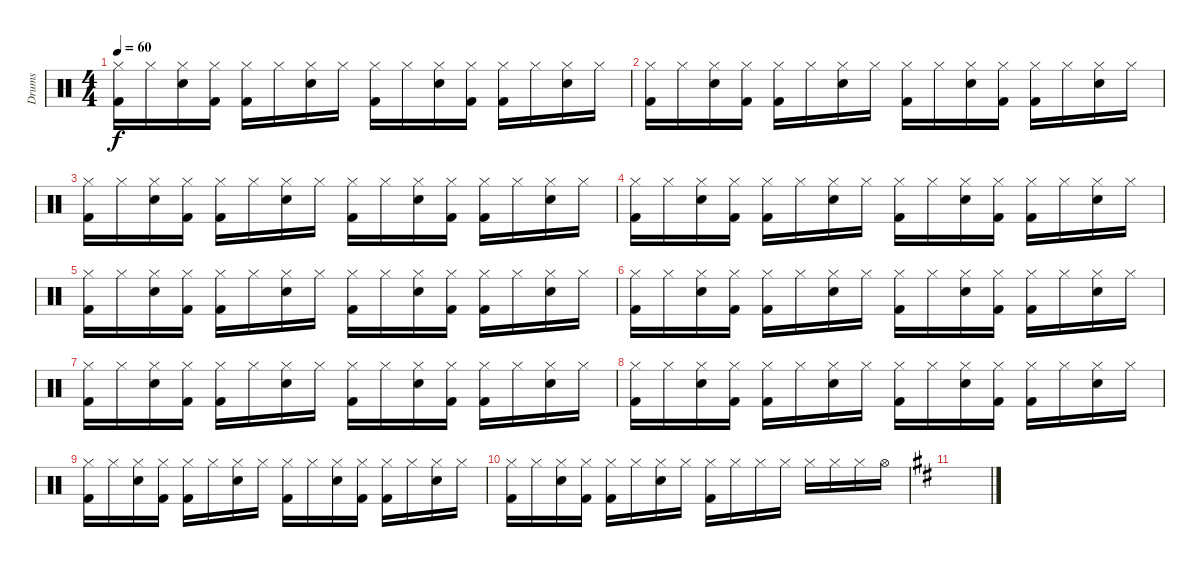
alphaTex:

\track ("Drums" "Drums") {instrument percussion}
\staff {score}
\articulation defaults
\ts (4 4)
\tempo 60
\clef neutral
\ks c
("Kick (hit) 2" "Hi-Hat (closed)").16{dy f} "Hi-Hat (closed)".16 ("Electric Snare (hit)" "Hi-Hat (closed)").16 ("Kick (hit) 2" "Hi-Hat (closed)").16 ("Kick (hit) 2" "Hi-Hat (closed)").16 "Hi-Hat (closed)".16 ("Electric Snare (hit)" "Hi-Hat (closed)").16 "Hi-Hat (closed)".16 ("Kick (hit) 2" "Hi-Hat (closed)").16 "Hi-Hat (closed)".16 ("Electric Snare (hit)" "Hi-Hat (closed)").16 ("Kick (hit) 2" "Hi-Hat (closed)").16 ("Kick (hit) 2" "Hi-Hat (closed)").16 "Hi-Hat (closed)".16 ("Electric Snare (hit)" "Hi-Hat (closed)").16 "Hi-Hat (closed)".16 |
("Kick (hit) 2" "Hi-Hat (closed)").16 "Hi-Hat (closed)".16 ("Electric Snare (hit)" "Hi-Hat (closed)").16 ("Kick (hit) 2" "Hi-Hat (closed)").16 ("Kick (hit) 2" "Hi-Hat (closed)").16 "Hi-Hat (closed)".16 ("Electric Snare (hit)" "Hi-Hat (closed)").16 "Hi-Hat (closed)".16 ("Kick (hit) 2" "Hi-Hat (closed)").16 "Hi-Hat (closed)".16 ("Electric Snare (hit)" "Hi-Hat (closed)").16 ("Kick (hit) 2" "Hi-Hat (closed)").16 ("Kick (hit) 2" "Hi-Hat (closed)").16 "Hi-Hat (closed)".16 ("Electric Snare (hit)" "Hi-Hat (closed)").16 "Hi-Hat (closed)".16 |
("Kick (hit) 2" "Hi-Hat (closed)").16 "Hi-Hat (closed)".16 ("Electric Snare (hit)" "Hi-Hat (closed)").16 ("Kick (hit) 2" "Hi-Hat (closed)").16 ("Kick (hit) 2" "Hi-Hat (closed)").16 "Hi-Hat (closed)".16 ("Electric Snare (hit)" "Hi-Hat (closed)").16 "Hi-Hat (closed)".16 ("Kick (hit) 2" "Hi-Hat (closed)").16 "Hi-Hat (closed)".16 ("Electric Snare (hit)" "Hi-Hat (closed)").16 ("Kick (hit) 2" "Hi-Hat (closed)").16 ("Kick (hit) 2" "Hi-Hat (closed)").16 "Hi-Hat (closed)".16 ("Electric Snare (hit)" "Hi-Hat (closed)").16 "Hi-Hat (closed)".16 |
("Kick (hit) 2" "Hi-Hat (closed)").16 "Hi-Hat (closed)".16 ("Electric Snare (hit)" "Hi-Hat (closed)").16 ("Kick (hit) 2" "Hi-Hat (closed)").16 ("Kick (hit) 2" "Hi-Hat (closed)").16 "Hi-Hat (closed)".16 ("Electric Snare (hit)" "Hi-Hat (closed)").16 "Hi-Hat (closed)".16 ("Kick (hit) 2" "Hi-Hat (closed)").16 "Hi-Hat (closed)".16 ("Electric Snare (hit)" "Hi-Hat (closed)").16 ("Kick (hit) 2" "Hi-Hat (closed)").16 ("Kick (hit) 2" "Hi-Hat (closed)").16 "Hi-Hat (closed)".16 ("Electric Snare (hit)" "Hi-Hat (closed)").16 "Hi-Hat (closed)".16 |
("Kick (hit) 2" "Hi-Hat (closed)").16 "Hi-Hat (closed)".16 ("Electric Snare (hit)" "Hi-Hat (closed)").16 ("Kick (hit) 2" "Hi-Hat (closed)").16 ("Kick (hit) 2" "Hi-Hat (closed)").16 "Hi-Hat (closed)".16 ("Electric Snare (hit)" "Hi-Hat (closed)").16 "Hi-Hat (closed)".16 ("Kick (hit) 2" "Hi-Hat (closed)").16 "Hi-Hat (closed)".16 ("Electric Snare (hit)" "Hi-Hat (closed)").16 ("Kick (hit) 2" "Hi-Hat (closed)").16 ("Kick (hit) 2" "Hi-Hat (closed)").16 "Hi-Hat (closed)".16 ("Electric Snare (hit)" "Hi-Hat (closed)").16 "Hi-Hat (closed)".16 |
("Kick (hit) 2" "Hi-Hat (closed)").16 "Hi-Hat (closed)".16 ("Electric Snare (hit)" "Hi-Hat (closed)").16 ("Kick (hit) 2" "Hi-Hat (closed)").16 ("Kick (hit) 2" "Hi-Hat (closed)").16 "Hi-Hat (closed)".16 ("Electric Snare (hit)" "Hi-Hat (closed)").16 "Hi-Hat (closed)".16 ("Kick (hit) 2" "Hi-Hat (closed)").16 "Hi-Hat (closed)".16 ("Electric Snare (hit)" "Hi-Hat (closed)").16 ("Kick (hit) 2" "Hi-Hat (closed)").16 ("Kick (hit) 2" "Hi-Hat (closed)").16 "Hi-Hat (closed)".16 ("Electric Snare (hit)" "Hi-Hat (closed)").16 "Hi-Hat (closed)".16 |
("Kick (hit) 2" "Hi-Hat (closed)").16 "Hi-Hat (closed)".16 ("Electric Snare (hit)" "Hi-Hat (closed)").16 ("Kick (hit) 2" "Hi-Hat (closed)").16 ("Kick (hit) 2" "Hi-Hat (closed)").16 "Hi-Hat (closed)".16 ("Electric Snare (hit)" "Hi-Hat (closed)").16 "Hi-Hat (closed)".16 ("Kick (hit) 2" "Hi-Hat (closed)").16 "Hi-Hat (closed)".16 ("Electric Snare (hit)" "Hi-Hat (closed)").16 ("Kick (hit) 2" "Hi-Hat (closed)").16 ("Kick (hit) 2" "Hi-Hat (closed)").16 "Hi-Hat (closed)".16 ("Electric Snare (hit)" "Hi-Hat (closed)").16 "Hi-Hat (closed)".16 |
("Kick (hit) 2" "Hi-Hat (closed)").16 "Hi-Hat (closed)".16 ("Electric Snare (hit)" "Hi-Hat (closed)").16 ("Kick (hit) 2" "Hi-Hat (closed)").16 ("Kick (hit) 2" "Hi-Hat (closed)").16 "Hi-Hat (closed)".16 ("Electric Snare (hit)" "Hi-Hat (closed)").16 "Hi-Hat (closed)".16 ("Kick (hit) 2" "Hi-Hat (closed)").16 "Hi-Hat (closed)".16 ("Electric Snare (hit)" "Hi-Hat (closed)").16 ("Kick (hit) 2" "Hi-Hat (closed)").16 ("Kick (hit) 2" "Hi-Hat (closed)").16 "Hi-Hat (closed)".16 ("Electric Snare (hit)" "Hi-Hat (closed)").16 "Hi-Hat (closed)".16 |
("Kick (hit) 2" "Hi-Hat (closed)").16 "Hi-Hat (closed)".16 ("Electric Snare (hit)" "Hi-Hat (closed)").16 ("Kick (hit) 2" "Hi-Hat (closed)").16 ("Kick (hit) 2" "Hi-Hat (closed)").16 "Hi-Hat (closed)".16 ("Electric Snare (hit)" "Hi-Hat (closed)").16 "Hi-Hat (closed)".16 ("Kick (hit) 2" "Hi-Hat (closed)").16 "Hi-Hat (closed)".16 ("Electric Snare (hit)" "Hi-Hat (closed)").16 ("Kick (hit) 2" "Hi-Hat (closed)").16 ("Kick (hit) 2" "Hi-Hat (closed)").16 "Hi-Hat (closed)".16 ("Electric Snare (hit)" "Hi-Hat (closed)").16 "Hi-Hat (closed)".16 |
("Kick (hit) 2" "Hi-Hat (closed)").16 "Hi-Hat (closed)".16 ("Electric Snare (hit)" "Hi-Hat (closed)").16 ("Kick (hit) 2" "Hi-Hat (closed)").16 ("Kick (hit) 2" "Hi-Hat (closed)").16 "Hi-Hat (closed)".16 ("Electric Snare (hit)" "Hi-Hat (closed)").16 "Hi-Hat (closed)".16 ("Kick (hit) 2" "Hi-Hat (closed)").16 "Hi-Hat (closed)".16 "Hi-Hat (closed)".16 "Hi-Hat (closed)".16 "Hi-Hat (closed)".16 "Hi-Hat (closed)".16 "Hi-Hat (closed)".16 "Hi-Hat (open)".16 |
\ks d
